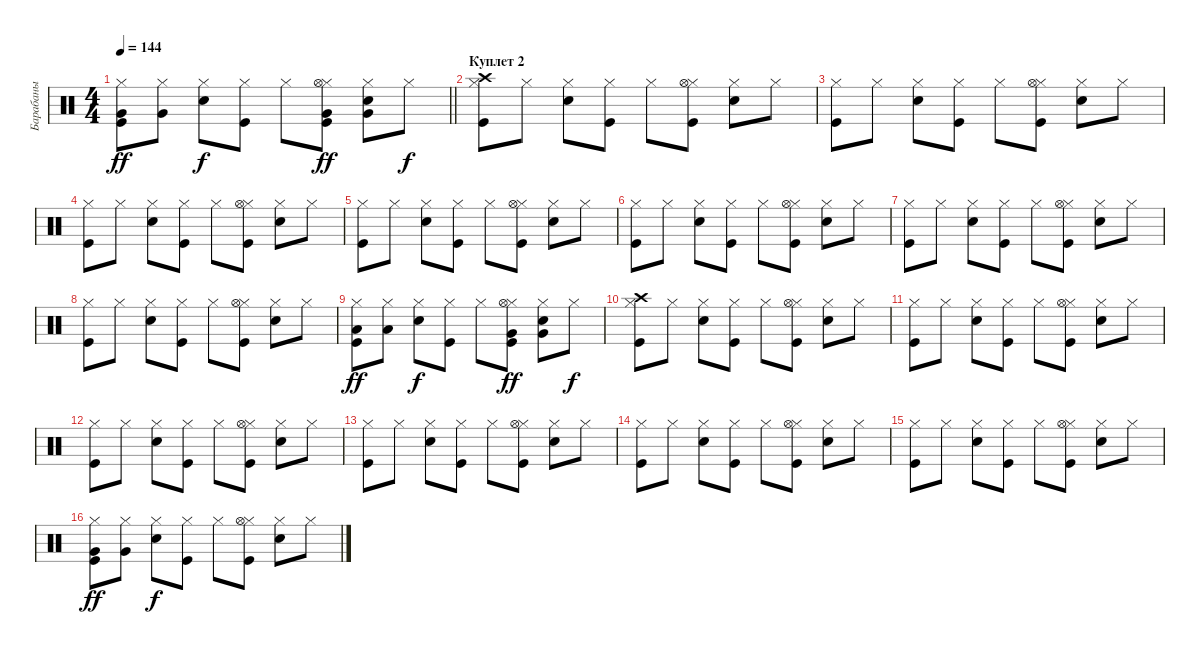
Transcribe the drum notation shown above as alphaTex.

\track ("Барабаны" "Барабаны") {instrument percussion}
\staff {score}
\articulation defaults
\ts (4 4)
\tempo 144
\clef neutral
\barLineRight lightlight
\ks c
("Kick (hit)" "Hi-Hat (closed)" "Very Low Tom (hit)").8{dy ff} ("Hi-Hat (closed)" "Very Low Tom (hit)").8 ("Snare (hit) 2" "Hi-Hat (closed)").8{dy f} ("Kick (hit)" "Hi-Hat (closed)").8 "Hi-Hat (closed)".8 ("Kick (hit)" "Hi-Hat (closed)" "Very Low Tom (hit)" "Hi-Hat (open)").8{dy ff} ("Snare (hit) 2" "Hi-Hat (closed)" "Very Low Tom (hit)").8 "Hi-Hat (closed)".8{dy f} |
\section ("" "Куплет 2")
("Kick (hit)" "Hi-Hat (closed)" "Crash high (hit)").8 "Hi-Hat (closed)".8 ("Snare (hit) 2" "Hi-Hat (closed)").8 ("Kick (hit)" "Hi-Hat (closed)").8 "Hi-Hat (closed)".8 ("Kick (hit)" "Hi-Hat (closed)" "Hi-Hat (open)").8 ("Snare (hit) 2" "Hi-Hat (closed)").8 "Hi-Hat (closed)".8 |
("Kick (hit)" "Hi-Hat (closed)").8 "Hi-Hat (closed)".8 ("Snare (hit) 2" "Hi-Hat (closed)").8 ("Kick (hit)" "Hi-Hat (closed)").8 "Hi-Hat (closed)".8 ("Kick (hit)" "Hi-Hat (closed)" "Hi-Hat (open)").8 ("Snare (hit) 2" "Hi-Hat (closed)").8 "Hi-Hat (closed)".8 |
("Kick (hit)" "Hi-Hat (closed)").8 "Hi-Hat (closed)".8 ("Snare (hit) 2" "Hi-Hat (closed)").8 ("Kick (hit)" "Hi-Hat (closed)").8 "Hi-Hat (closed)".8 ("Kick (hit)" "Hi-Hat (closed)" "Hi-Hat (open)").8 ("Snare (hit) 2" "Hi-Hat (closed)").8 "Hi-Hat (closed)".8 |
("Kick (hit)" "Hi-Hat (closed)").8 "Hi-Hat (closed)".8 ("Snare (hit) 2" "Hi-Hat (closed)").8 ("Kick (hit)" "Hi-Hat (closed)").8 "Hi-Hat (closed)".8 ("Kick (hit)" "Hi-Hat (closed)" "Hi-Hat (open)").8 ("Snare (hit) 2" "Hi-Hat (closed)").8 "Hi-Hat (closed)".8 |
("Kick (hit)" "Hi-Hat (closed)").8 "Hi-Hat (closed)".8 ("Snare (hit) 2" "Hi-Hat (closed)").8 ("Kick (hit)" "Hi-Hat (closed)").8 "Hi-Hat (closed)".8 ("Kick (hit)" "Hi-Hat (closed)" "Hi-Hat (open)").8 ("Snare (hit) 2" "Hi-Hat (closed)").8 "Hi-Hat (closed)".8 |
("Kick (hit)" "Hi-Hat (closed)").8 "Hi-Hat (closed)".8 ("Snare (hit) 2" "Hi-Hat (closed)").8 ("Kick (hit)" "Hi-Hat (closed)").8 "Hi-Hat (closed)".8 ("Kick (hit)" "Hi-Hat (closed)" "Hi-Hat (open)").8 ("Snare (hit) 2" "Hi-Hat (closed)").8 "Hi-Hat (closed)".8 |
("Kick (hit)" "Hi-Hat (closed)").8 "Hi-Hat (closed)".8 ("Snare (hit) 2" "Hi-Hat (closed)").8 ("Kick (hit)" "Hi-Hat (closed)").8 "Hi-Hat (closed)".8 ("Kick (hit)" "Hi-Hat (closed)" "Hi-Hat (open)").8 ("Snare (hit) 2" "Hi-Hat (closed)").8 "Hi-Hat (closed)".8 |
("Kick (hit)" "Hi-Hat (closed)" "Low Floor Tom (hit)").8{dy ff} ("Hi-Hat (closed)" "Low Floor Tom (hit)").8 ("Snare (hit) 2" "Hi-Hat (closed)").8{dy f} ("Kick (hit)" "Hi-Hat (closed)").8 "Hi-Hat (closed)".8 ("Kick (hit)" "Hi-Hat (closed)" "Very Low Tom (hit)" "Hi-Hat (open)").8{dy ff} ("Snare (hit) 2" "Hi-Hat (closed)" "Very Low Tom (hit)").8 "Hi-Hat (closed)".8{dy f} |
("Kick (hit)" "Hi-Hat (closed)" "Crash high (hit)").8 "Hi-Hat (closed)".8 ("Snare (hit) 2" "Hi-Hat (closed)").8 ("Kick (hit)" "Hi-Hat (closed)").8 "Hi-Hat (closed)".8 ("Kick (hit)" "Hi-Hat (closed)" "Hi-Hat (open)").8 ("Snare (hit) 2" "Hi-Hat (closed)").8 "Hi-Hat (closed)".8 |
("Kick (hit)" "Hi-Hat (closed)").8 "Hi-Hat (closed)".8 ("Snare (hit) 2" "Hi-Hat (closed)").8 ("Kick (hit)" "Hi-Hat (closed)").8 "Hi-Hat (closed)".8 ("Kick (hit)" "Hi-Hat (closed)" "Hi-Hat (open)").8 ("Snare (hit) 2" "Hi-Hat (closed)").8 "Hi-Hat (closed)".8 |
("Kick (hit)" "Hi-Hat (closed)").8 "Hi-Hat (closed)".8 ("Snare (hit) 2" "Hi-Hat (closed)").8 ("Kick (hit)" "Hi-Hat (closed)").8 "Hi-Hat (closed)".8 ("Kick (hit)" "Hi-Hat (closed)" "Hi-Hat (open)").8 ("Snare (hit) 2" "Hi-Hat (closed)").8 "Hi-Hat (closed)".8 |
("Kick (hit)" "Hi-Hat (closed)").8 "Hi-Hat (closed)".8 ("Snare (hit) 2" "Hi-Hat (closed)").8 ("Kick (hit)" "Hi-Hat (closed)").8 "Hi-Hat (closed)".8 ("Kick (hit)" "Hi-Hat (closed)" "Hi-Hat (open)").8 ("Snare (hit) 2" "Hi-Hat (closed)").8 "Hi-Hat (closed)".8 |
("Kick (hit)" "Hi-Hat (closed)").8 "Hi-Hat (closed)".8 ("Snare (hit) 2" "Hi-Hat (closed)").8 ("Kick (hit)" "Hi-Hat (closed)").8 "Hi-Hat (closed)".8 ("Kick (hit)" "Hi-Hat (closed)" "Hi-Hat (open)").8 ("Snare (hit) 2" "Hi-Hat (closed)").8 "Hi-Hat (closed)".8 |
("Kick (hit)" "Hi-Hat (closed)").8 "Hi-Hat (closed)".8 ("Snare (hit) 2" "Hi-Hat (closed)").8 ("Kick (hit)" "Hi-Hat (closed)").8 "Hi-Hat (closed)".8 ("Kick (hit)" "Hi-Hat (closed)" "Hi-Hat (open)").8 ("Snare (hit) 2" "Hi-Hat (closed)").8 "Hi-Hat (closed)".8 |
("Kick (hit)" "Hi-Hat (closed)" "Very Low Tom (hit)").8{dy ff} ("Hi-Hat (closed)" "Very Low Tom (hit)").8 ("Snare (hit) 2" "Hi-Hat (closed)").8{dy f} ("Kick (hit)" "Hi-Hat (closed)").8 "Hi-Hat (closed)".8 ("Kick (hit)" "Hi-Hat (closed)" "Hi-Hat (open)").8 ("Snare (hit) 2" "Hi-Hat (closed)").8 "Hi-Hat (closed)".8
